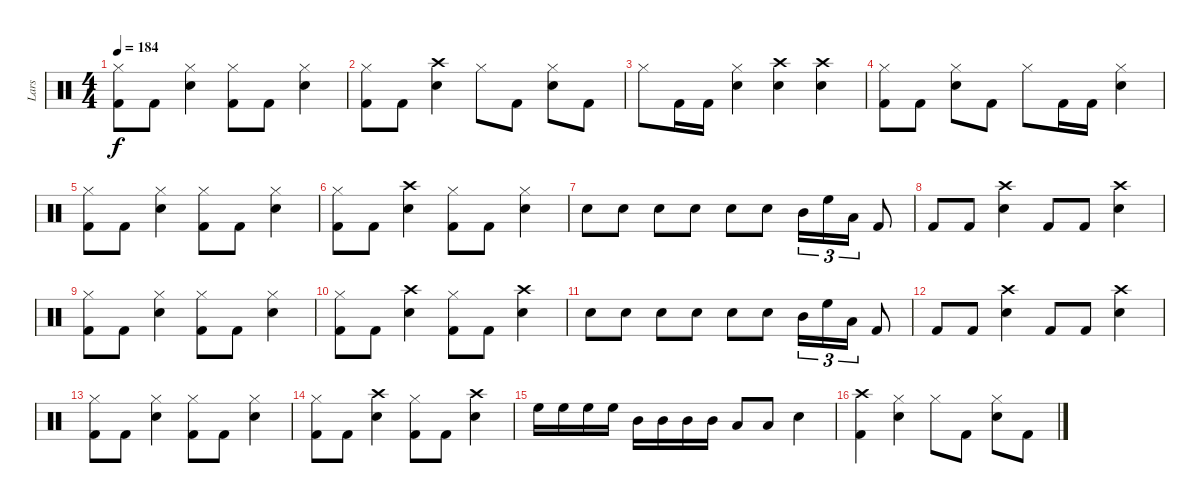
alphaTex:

\track ("Lars" "Lars") {instrument percussion}
\staff {score}
\articulation defaults
\ts (4 4)
\tempo 184
\clef neutral
\ks c
("Hi-Hat (closed)" "Kick (hit) 2").8{dy f} "Kick (hit) 2".8 ("Hi-Hat (closed)" "Snare (hit) 2").4 ("Hi-Hat (closed)" "Kick (hit) 2").8 "Kick (hit) 2".8 ("Hi-Hat (closed)" "Snare (hit) 2").4 |
("Hi-Hat (closed)" "Kick (hit) 2").8 "Kick (hit) 2".8 ("Crash high (hit)" "Snare (hit) 2").4 "Hi-Hat (closed)".8 "Kick (hit) 2".8 ("Hi-Hat (closed)" "Snare (hit) 2").8 "Kick (hit) 2".8 |
"Hi-Hat (closed)".8 "Kick (hit) 2".16 "Kick (hit) 2".16 ("Hi-Hat (closed)" "Snare (hit) 2").4 ("Crash high (hit)" "Snare (hit) 2").4 ("Crash high (hit)" "Snare (hit) 2").4 |
("Hi-Hat (closed)" "Kick (hit) 2").8 "Kick (hit) 2".8 ("Hi-Hat (closed)" "Snare (hit) 2").8 "Kick (hit) 2".8 "Hi-Hat (closed)".8 "Kick (hit) 2".16 "Kick (hit) 2".16 ("Hi-Hat (closed)" "Snare (hit) 2").4 |
("Hi-Hat (closed)" "Kick (hit) 2").8 "Kick (hit) 2".8 ("Hi-Hat (closed)" "Snare (hit) 2").4 ("Hi-Hat (closed)" "Kick (hit) 2").8 "Kick (hit) 2".8 ("Hi-Hat (closed)" "Snare (hit) 2").4 |
("Hi-Hat (closed)" "Kick (hit) 2").8 "Kick (hit) 2".8 ("Crash high (hit)" "Snare (hit) 2").4 ("Hi-Hat (closed)" "Kick (hit) 2").8 "Kick (hit) 2".8 ("Hi-Hat (closed)" "Snare (hit) 2").4 |
"Snare (hit) 2".8 "Snare (hit) 2".8 "Snare (hit) 2".8 "Snare (hit) 2".8 "Snare (hit) 2".8 "Snare (hit) 2".8 "Mid Tom (hit)".16{tu (3 2)} "High Floor Tom (hit)".16{tu (3 2)} "Low Tom (hit)".16{tu (3 2)} "Kick (hit) 2".8 |
"Kick (hit) 2".8 "Kick (hit) 2".8 ("Crash high (hit)" "Snare (hit) 2").4 "Kick (hit) 2".8 "Kick (hit) 2".8 ("Crash high (hit)" "Snare (hit) 2").4 |
("Hi-Hat (closed)" "Kick (hit) 2").8 "Kick (hit) 2".8 ("Hi-Hat (closed)" "Snare (hit) 2").4 ("Hi-Hat (closed)" "Kick (hit) 2").8 "Kick (hit) 2".8 ("Hi-Hat (closed)" "Snare (hit) 2").4 |
("Hi-Hat (closed)" "Kick (hit) 2").8 "Kick (hit) 2".8 ("Crash high (hit)" "Snare (hit) 2").4 ("Hi-Hat (closed)" "Kick (hit) 2").8 "Kick (hit) 2".8 ("Crash high (hit)" "Snare (hit) 2").4 |
"Snare (hit) 2".8 "Snare (hit) 2".8 "Snare (hit) 2".8 "Snare (hit) 2".8 "Snare (hit) 2".8 "Snare (hit) 2".8 "Mid Tom (hit)".16{tu (3 2)} "High Floor Tom (hit)".16{tu (3 2)} "Low Tom (hit)".16{tu (3 2)} "Kick (hit) 2".8 |
"Kick (hit) 2".8 "Kick (hit) 2".8 ("Crash high (hit)" "Snare (hit) 2").4 "Kick (hit) 2".8 "Kick (hit) 2".8 ("Crash high (hit)" "Snare (hit) 2").4 |
("Hi-Hat (closed)" "Kick (hit) 2").8 "Kick (hit) 2".8 ("Hi-Hat (closed)" "Snare (hit) 2").4 ("Hi-Hat (closed)" "Kick (hit) 2").8 "Kick (hit) 2".8 ("Hi-Hat (closed)" "Snare (hit) 2").4 |
("Hi-Hat (closed)" "Kick (hit) 2").8 "Kick (hit) 2".8 ("Crash high (hit)" "Snare (hit) 2").4 ("Hi-Hat (closed)" "Kick (hit) 2").8 "Kick (hit) 2".8 ("Crash high (hit)" "Snare (hit) 2").4 |
"High Floor Tom (hit)".16 "High Floor Tom (hit)".16 "High Floor Tom (hit)".16 "High Floor Tom (hit)".16 "Mid Tom (hit)".16 "Mid Tom (hit)".16 "Mid Tom (hit)".16 "Mid Tom (hit)".16 "Low Tom (hit)".8 "Low Tom (hit)".8 "Snare (hit) 2".4 |
("Crash high (hit)" "Kick (hit) 2").4 ("Hi-Hat (closed)" "Snare (hit) 2").4 "Hi-Hat (closed)".8 "Kick (hit) 2".8 ("Hi-Hat (closed)" "Snare (hit) 2").8 "Kick (hit) 2".8
